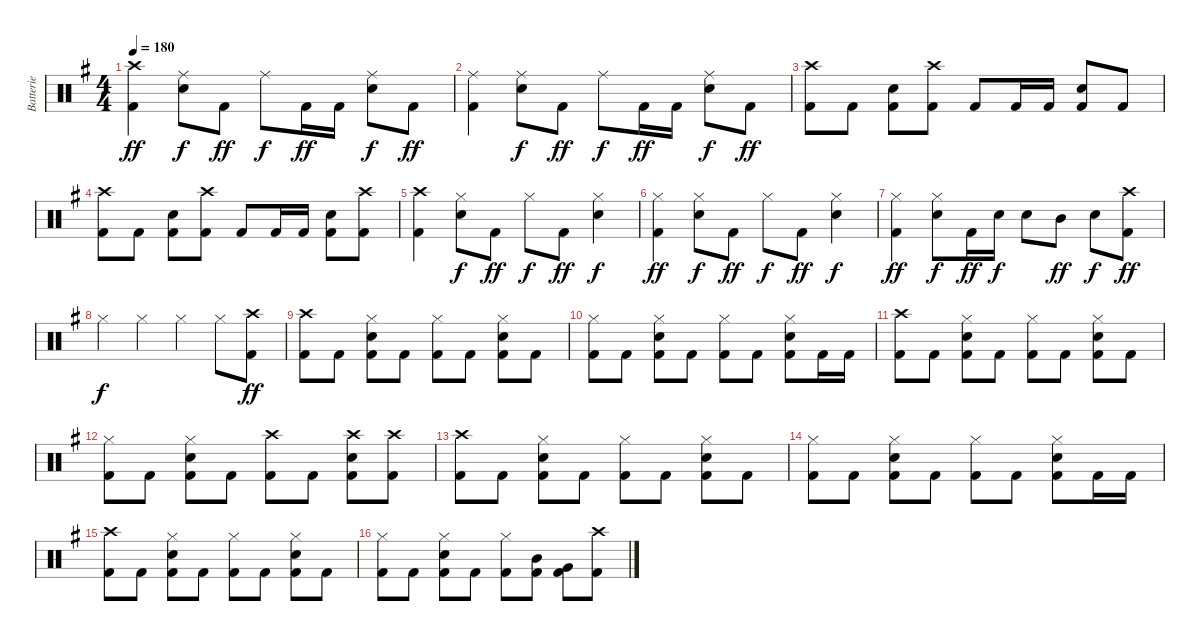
\track ("Batterie" "Batterie") {instrument percussion}
\staff {score}
\articulation defaults
\ts (4 4)
\tempo 180
\clef neutral
\ks g
("Crash high (hit)" "Kick (hit) 2").4{dy ff} ("Ride (middle)" "Snare (hit) 2").8{dy f} "Kick (hit) 2".8{dy ff} "Ride (middle)".8{dy f} "Kick (hit) 2".16{dy ff} "Kick (hit) 2".16 ("Ride (middle)" "Snare (hit) 2").8{dy f} "Kick (hit) 2".8{dy ff} |
("Ride (middle)" "Kick (hit) 2").4 ("Ride (middle)" "Snare (hit) 2").8{dy f} "Kick (hit) 2".8{dy ff} "Ride (middle)".8{dy f} "Kick (hit) 2".16{dy ff} "Kick (hit) 2".16 ("Ride (middle)" "Snare (hit) 2").8{dy f} "Kick (hit) 2".8{dy ff} |
("Crash high (hit)" "Kick (hit) 2").8 "Kick (hit) 2".8 ("Snare (hit) 2" "Kick (hit) 2").8 ("Crash high (hit)" "Kick (hit) 2").8 "Kick (hit) 2".8 "Kick (hit) 2".16 "Kick (hit) 2".16 ("Snare (hit) 2" "Kick (hit) 2").8 "Kick (hit) 2".8 |
("Crash high (hit)" "Kick (hit) 2").8 "Kick (hit) 2".8 ("Snare (hit) 2" "Kick (hit) 2").8 ("Crash high (hit)" "Kick (hit) 2").8 "Kick (hit) 2".8 "Kick (hit) 2".16 "Kick (hit) 2".16 ("Snare (hit) 2" "Kick (hit) 2").8 ("Crash high (hit)" "Kick (hit) 2").8 |
("Crash high (hit)" "Kick (hit) 2").4 ("Hi-Hat (closed)" "Snare (hit) 2").8{dy f} "Kick (hit) 2".8{dy ff} "Hi-Hat (closed)".8{dy f} "Kick (hit) 2".8{dy ff} ("Hi-Hat (closed)" "Snare (hit) 2").4{dy f} |
("Hi-Hat (closed)" "Kick (hit) 2").4{dy ff} ("Hi-Hat (closed)" "Snare (hit) 2").8{dy f} "Kick (hit) 2".8{dy ff} "Hi-Hat (closed)".8{dy f} "Kick (hit) 2".8{dy ff} ("Hi-Hat (closed)" "Snare (hit) 2").4{dy f} |
("Hi-Hat (closed)" "Kick (hit) 2").4{dy ff} ("Hi-Hat (closed)" "Snare (hit) 2").8{dy f} "Kick (hit) 2".16{dy ff} "Snare (hit) 2".16{dy f} "Snare (hit) 2".8 "Mid Tom (hit)".8{dy ff} "Snare (hit) 2".8{dy f} ("Crash high (hit)" "Kick (hit) 2").8{dy ff} |
"Hi-Hat (closed)".4{dy f} "Hi-Hat (closed)".4 "Hi-Hat (closed)".4 "Hi-Hat (closed)".8 ("Crash high (hit)" "Kick (hit) 2").8{dy ff} |
("Crash high (hit)" "Kick (hit) 2").8 "Kick (hit) 2".8 ("Hi-Hat (closed)" "Snare (hit) 2" "Kick (hit) 2").8 "Kick (hit) 2".8 ("Hi-Hat (closed)" "Kick (hit) 2").8 "Kick (hit) 2".8 ("Hi-Hat (closed)" "Snare (hit) 2" "Kick (hit) 2").8 "Kick (hit) 2".8 |
("Hi-Hat (closed)" "Kick (hit) 2").8 "Kick (hit) 2".8 ("Hi-Hat (closed)" "Snare (hit) 2" "Kick (hit) 2").8 "Kick (hit) 2".8 ("Hi-Hat (closed)" "Kick (hit) 2").8 "Kick (hit) 2".8 ("Hi-Hat (closed)" "Snare (hit) 2" "Kick (hit) 2").8 "Kick (hit) 2".16 "Kick (hit) 2".16 |
("Crash high (hit)" "Kick (hit) 2").8 "Kick (hit) 2".8 ("Hi-Hat (closed)" "Snare (hit) 2" "Kick (hit) 2").8 "Kick (hit) 2".8 ("Hi-Hat (closed)" "Kick (hit) 2").8 "Kick (hit) 2".8 ("Hi-Hat (closed)" "Snare (hit) 2" "Kick (hit) 2").8 "Kick (hit) 2".8 |
("Hi-Hat (closed)" "Kick (hit) 2").8 "Kick (hit) 2".8 ("Hi-Hat (closed)" "Snare (hit) 2" "Kick (hit) 2").8 "Kick (hit) 2".8 ("Crash high (hit)" "Kick (hit) 2").8 "Kick (hit) 2".8 ("Crash high (hit)" "Snare (hit) 2" "Kick (hit) 2").8 ("Crash high (hit)" "Kick (hit) 2").8 |
("Crash high (hit)" "Kick (hit) 2").8 "Kick (hit) 2".8 ("Hi-Hat (closed)" "Snare (hit) 2" "Kick (hit) 2").8 "Kick (hit) 2".8 ("Hi-Hat (closed)" "Kick (hit) 2").8 "Kick (hit) 2".8 ("Hi-Hat (closed)" "Snare (hit) 2" "Kick (hit) 2").8 "Kick (hit) 2".8 |
("Hi-Hat (closed)" "Kick (hit) 2").8 "Kick (hit) 2".8 ("Hi-Hat (closed)" "Snare (hit) 2" "Kick (hit) 2").8 "Kick (hit) 2".8 ("Hi-Hat (closed)" "Kick (hit) 2").8 "Kick (hit) 2".8 ("Hi-Hat (closed)" "Snare (hit) 2" "Kick (hit) 2").8 "Kick (hit) 2".16 "Kick (hit) 2".16 |
("Crash high (hit)" "Kick (hit) 2").8 "Kick (hit) 2".8 ("Hi-Hat (closed)" "Snare (hit) 2" "Kick (hit) 2").8 "Kick (hit) 2".8 ("Hi-Hat (closed)" "Kick (hit) 2").8 "Kick (hit) 2".8 ("Hi-Hat (closed)" "Snare (hit) 2" "Kick (hit) 2").8 "Kick (hit) 2".8 |
("Hi-Hat (closed)" "Kick (hit) 2").8 "Kick (hit) 2".8 ("Hi-Hat (closed)" "Snare (hit) 2" "Kick (hit) 2").8 "Kick (hit) 2".8 ("Hi-Hat (closed)" "Kick (hit) 2").8 ("Mid Tom (hit)" "Kick (hit) 2").8 ("Very Low Tom (hit)" "Kick (hit) 2").8 ("Crash high (hit)" "Kick (hit) 2").8
